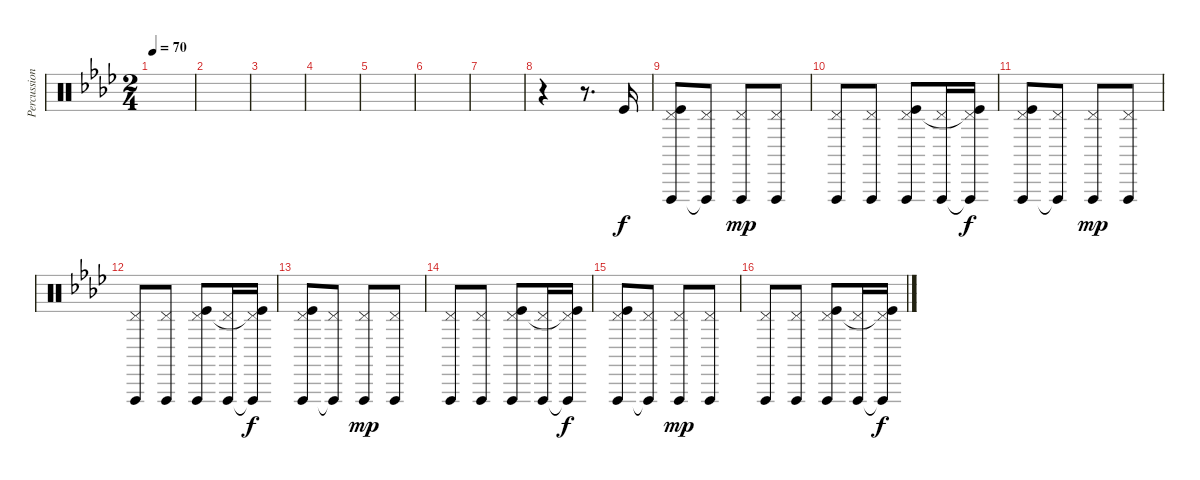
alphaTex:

\track ("Percussion" "Percussion") {instrument percussion}
\staff {score}
\articulation defaults
\ts (2 4)
\tempo 70
\clef neutral
\ks fminor
|
|
|
|
|
|
|
r.4 r.8{d} "Kick (hit)".16 |
("Vibraslap (hit)" "Kick (hit)" "Pedal Hi-Hat (hit)").8 ("Vibraslap (hit)"{t} "Pedal Hi-Hat (hit)").8 ("Vibraslap (hit)" "Pedal Hi-Hat (hit)").8{dy mp} ("Vibraslap (hit)" "Pedal Hi-Hat (hit)").8 |
("Vibraslap (hit)" "Pedal Hi-Hat (hit)").8 ("Vibraslap (hit)" "Pedal Hi-Hat (hit)").8 ("Vibraslap (hit)" "Kick (hit)" "Pedal Hi-Hat (hit)").8 ("Vibraslap (hit)" "Pedal Hi-Hat (hit)").16 ("Vibraslap (hit)"{t} "Kick (hit)" "Pedal Hi-Hat (hit)"{t}).16{dy f} |
("Vibraslap (hit)" "Kick (hit)" "Pedal Hi-Hat (hit)").8 ("Vibraslap (hit)"{t} "Pedal Hi-Hat (hit)").8 ("Vibraslap (hit)" "Pedal Hi-Hat (hit)").8{dy mp} ("Vibraslap (hit)" "Pedal Hi-Hat (hit)").8 |
("Vibraslap (hit)" "Pedal Hi-Hat (hit)").8 ("Vibraslap (hit)" "Pedal Hi-Hat (hit)").8 ("Vibraslap (hit)" "Kick (hit)" "Pedal Hi-Hat (hit)").8 ("Vibraslap (hit)" "Pedal Hi-Hat (hit)").16 ("Vibraslap (hit)"{t} "Kick (hit)" "Pedal Hi-Hat (hit)"{t}).16{dy f} |
("Vibraslap (hit)" "Kick (hit)" "Pedal Hi-Hat (hit)").8 ("Vibraslap (hit)"{t} "Pedal Hi-Hat (hit)").8 ("Vibraslap (hit)" "Pedal Hi-Hat (hit)").8{dy mp} ("Vibraslap (hit)" "Pedal Hi-Hat (hit)").8 |
("Vibraslap (hit)" "Pedal Hi-Hat (hit)").8 ("Vibraslap (hit)" "Pedal Hi-Hat (hit)").8 ("Vibraslap (hit)" "Kick (hit)" "Pedal Hi-Hat (hit)").8 ("Vibraslap (hit)" "Pedal Hi-Hat (hit)").16 ("Vibraslap (hit)"{t} "Kick (hit)" "Pedal Hi-Hat (hit)"{t}).16{dy f} |
("Vibraslap (hit)" "Kick (hit)" "Pedal Hi-Hat (hit)").8 ("Vibraslap (hit)"{t} "Pedal Hi-Hat (hit)").8 ("Vibraslap (hit)" "Pedal Hi-Hat (hit)").8{dy mp} ("Vibraslap (hit)" "Pedal Hi-Hat (hit)").8 |
("Vibraslap (hit)" "Pedal Hi-Hat (hit)").8 ("Vibraslap (hit)" "Pedal Hi-Hat (hit)").8 ("Vibraslap (hit)" "Kick (hit)" "Pedal Hi-Hat (hit)").8 ("Vibraslap (hit)" "Pedal Hi-Hat (hit)").16 ("Vibraslap (hit)"{t} "Kick (hit)" "Pedal Hi-Hat (hit)"{t}).16{dy f}
